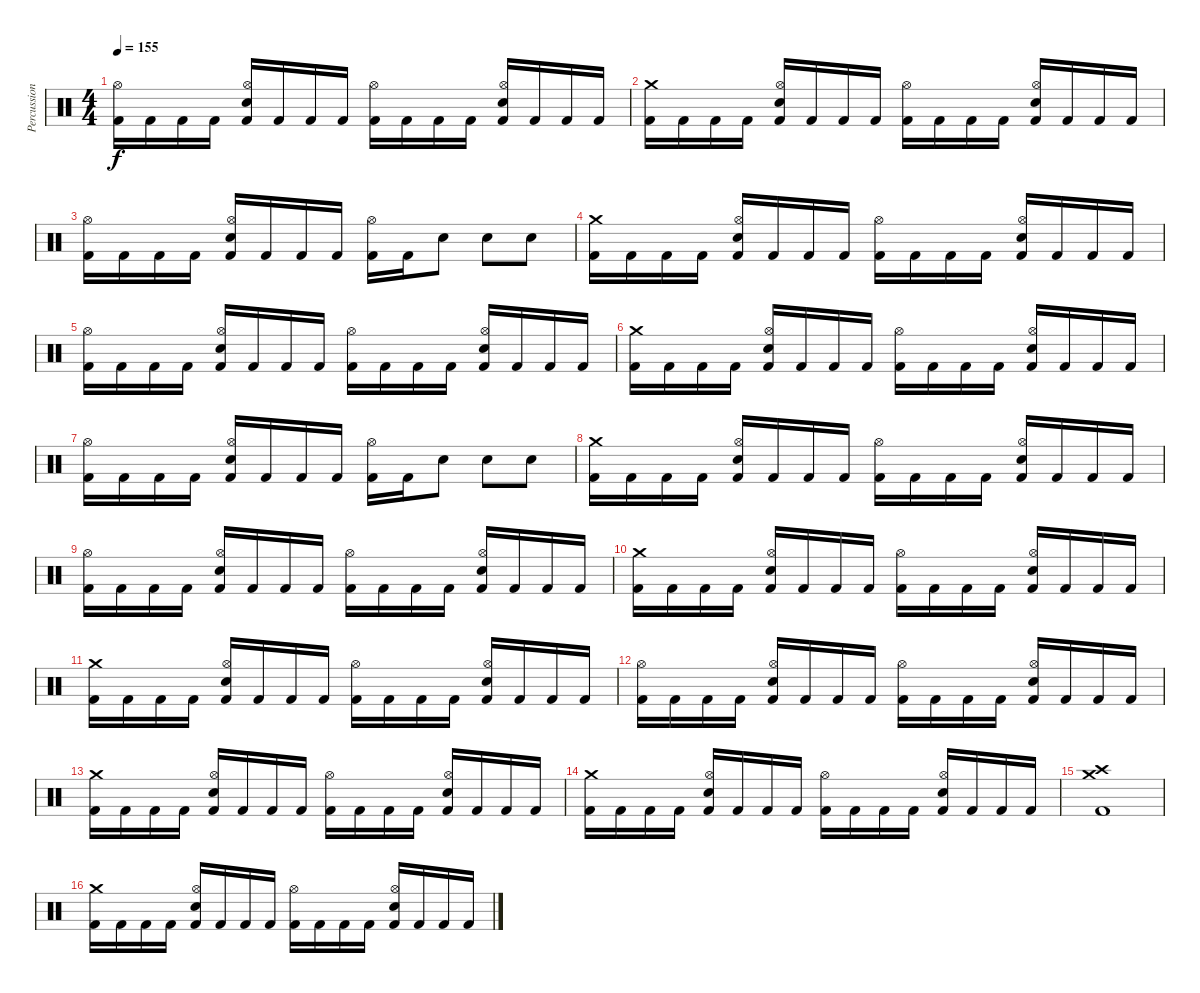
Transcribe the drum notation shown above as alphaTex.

\track ("Percussion" "Percussion") {instrument percussion}
\staff {score}
\articulation defaults
\ts (4 4)
\tempo 155
\clef neutral
\ks c
("Kick (hit) 2" "Hi-Hat (open)").16{dy f} "Kick (hit) 2".16 "Kick (hit) 2".16 "Kick (hit) 2".16 ("Kick (hit) 2" "Snare (hit) 2" "Hi-Hat (open)").16 "Kick (hit) 2".16 "Kick (hit) 2".16 "Kick (hit) 2".16 ("Kick (hit) 2" "Hi-Hat (open)").16 "Kick (hit) 2".16 "Kick (hit) 2".16 "Kick (hit) 2".16 ("Kick (hit) 2" "Snare (hit) 2" "Hi-Hat (open)").16 "Kick (hit) 2".16 "Kick (hit) 2".16 "Kick (hit) 2".16 |
("Kick (hit) 2" "Crash medium (hit)").16 "Kick (hit) 2".16 "Kick (hit) 2".16 "Kick (hit) 2".16 ("Kick (hit) 2" "Snare (hit) 2" "Hi-Hat (open)").16 "Kick (hit) 2".16 "Kick (hit) 2".16 "Kick (hit) 2".16 ("Kick (hit) 2" "Hi-Hat (open)").16 "Kick (hit) 2".16 "Kick (hit) 2".16 "Kick (hit) 2".16 ("Kick (hit) 2" "Snare (hit) 2" "Hi-Hat (open)").16 "Kick (hit) 2".16 "Kick (hit) 2".16 "Kick (hit) 2".16 |
("Kick (hit) 2" "Hi-Hat (open)").16 "Kick (hit) 2".16 "Kick (hit) 2".16 "Kick (hit) 2".16 ("Kick (hit) 2" "Snare (hit) 2" "Hi-Hat (open)").16 "Kick (hit) 2".16 "Kick (hit) 2".16 "Kick (hit) 2".16 ("Kick (hit) 2" "Hi-Hat (open)").16 "Kick (hit) 2".16 "Snare (hit) 2".8 "Snare (hit) 2".8 "Snare (hit) 2".8 |
("Kick (hit) 2" "Crash medium (hit)").16 "Kick (hit) 2".16 "Kick (hit) 2".16 "Kick (hit) 2".16 ("Kick (hit) 2" "Snare (hit) 2" "Hi-Hat (open)").16 "Kick (hit) 2".16 "Kick (hit) 2".16 "Kick (hit) 2".16 ("Kick (hit) 2" "Hi-Hat (open)").16 "Kick (hit) 2".16 "Kick (hit) 2".16 "Kick (hit) 2".16 ("Kick (hit) 2" "Snare (hit) 2" "Hi-Hat (open)").16 "Kick (hit) 2".16 "Kick (hit) 2".16 "Kick (hit) 2".16 |
("Kick (hit) 2" "Hi-Hat (open)").16 "Kick (hit) 2".16 "Kick (hit) 2".16 "Kick (hit) 2".16 ("Kick (hit) 2" "Snare (hit) 2" "Hi-Hat (open)").16 "Kick (hit) 2".16 "Kick (hit) 2".16 "Kick (hit) 2".16 ("Kick (hit) 2" "Hi-Hat (open)").16 "Kick (hit) 2".16 "Kick (hit) 2".16 "Kick (hit) 2".16 ("Kick (hit) 2" "Snare (hit) 2" "Hi-Hat (open)").16 "Kick (hit) 2".16 "Kick (hit) 2".16 "Kick (hit) 2".16 |
("Kick (hit) 2" "Crash medium (hit)").16 "Kick (hit) 2".16 "Kick (hit) 2".16 "Kick (hit) 2".16 ("Kick (hit) 2" "Snare (hit) 2" "Hi-Hat (open)").16 "Kick (hit) 2".16 "Kick (hit) 2".16 "Kick (hit) 2".16 ("Kick (hit) 2" "Hi-Hat (open)").16 "Kick (hit) 2".16 "Kick (hit) 2".16 "Kick (hit) 2".16 ("Kick (hit) 2" "Snare (hit) 2" "Hi-Hat (open)").16 "Kick (hit) 2".16 "Kick (hit) 2".16 "Kick (hit) 2".16 |
("Kick (hit) 2" "Hi-Hat (open)").16 "Kick (hit) 2".16 "Kick (hit) 2".16 "Kick (hit) 2".16 ("Kick (hit) 2" "Snare (hit) 2" "Hi-Hat (open)").16 "Kick (hit) 2".16 "Kick (hit) 2".16 "Kick (hit) 2".16 ("Kick (hit) 2" "Hi-Hat (open)").16 "Kick (hit) 2".16 "Snare (hit) 2".8 "Snare (hit) 2".8 "Snare (hit) 2".8 |
("Kick (hit) 2" "Crash medium (hit)").16 "Kick (hit) 2".16 "Kick (hit) 2".16 "Kick (hit) 2".16 ("Kick (hit) 2" "Snare (hit) 2" "Hi-Hat (open)").16 "Kick (hit) 2".16 "Kick (hit) 2".16 "Kick (hit) 2".16 ("Kick (hit) 2" "Hi-Hat (open)").16 "Kick (hit) 2".16 "Kick (hit) 2".16 "Kick (hit) 2".16 ("Kick (hit) 2" "Snare (hit) 2" "Hi-Hat (open)").16 "Kick (hit) 2".16 "Kick (hit) 2".16 "Kick (hit) 2".16 |
("Kick (hit) 2" "Hi-Hat (open)").16 "Kick (hit) 2".16 "Kick (hit) 2".16 "Kick (hit) 2".16 ("Kick (hit) 2" "Snare (hit) 2" "Hi-Hat (open)").16 "Kick (hit) 2".16 "Kick (hit) 2".16 "Kick (hit) 2".16 ("Kick (hit) 2" "Hi-Hat (open)").16 "Kick (hit) 2".16 "Kick (hit) 2".16 "Kick (hit) 2".16 ("Kick (hit) 2" "Snare (hit) 2" "Hi-Hat (open)").16 "Kick (hit) 2".16 "Kick (hit) 2".16 "Kick (hit) 2".16 |
("Kick (hit) 2" "Crash medium (hit)").16 "Kick (hit) 2".16 "Kick (hit) 2".16 "Kick (hit) 2".16 ("Kick (hit) 2" "Snare (hit) 2" "Hi-Hat (open)").16 "Kick (hit) 2".16 "Kick (hit) 2".16 "Kick (hit) 2".16 ("Kick (hit) 2" "Hi-Hat (open)").16 "Kick (hit) 2".16 "Kick (hit) 2".16 "Kick (hit) 2".16 ("Kick (hit) 2" "Snare (hit) 2" "Hi-Hat (open)").16 "Kick (hit) 2".16 "Kick (hit) 2".16 "Kick (hit) 2".16 |
("Kick (hit) 2" "Crash medium (hit)").16 "Kick (hit) 2".16 "Kick (hit) 2".16 "Kick (hit) 2".16 ("Kick (hit) 2" "Snare (hit) 2" "Hi-Hat (open)").16 "Kick (hit) 2".16 "Kick (hit) 2".16 "Kick (hit) 2".16 ("Kick (hit) 2" "Hi-Hat (open)").16 "Kick (hit) 2".16 "Kick (hit) 2".16 "Kick (hit) 2".16 ("Kick (hit) 2" "Snare (hit) 2" "Hi-Hat (open)").16 "Kick (hit) 2".16 "Kick (hit) 2".16 "Kick (hit) 2".16 |
("Kick (hit) 2" "Hi-Hat (open)").16 "Kick (hit) 2".16 "Kick (hit) 2".16 "Kick (hit) 2".16 ("Kick (hit) 2" "Snare (hit) 2" "Hi-Hat (open)").16 "Kick (hit) 2".16 "Kick (hit) 2".16 "Kick (hit) 2".16 ("Kick (hit) 2" "Hi-Hat (open)").16 "Kick (hit) 2".16 "Kick (hit) 2".16 "Kick (hit) 2".16 ("Kick (hit) 2" "Snare (hit) 2" "Hi-Hat (open)").16 "Kick (hit) 2".16 "Kick (hit) 2".16 "Kick (hit) 2".16 |
("Kick (hit) 2" "Crash medium (hit)").16 "Kick (hit) 2".16 "Kick (hit) 2".16 "Kick (hit) 2".16 ("Kick (hit) 2" "Snare (hit) 2" "Hi-Hat (open)").16 "Kick (hit) 2".16 "Kick (hit) 2".16 "Kick (hit) 2".16 ("Kick (hit) 2" "Hi-Hat (open)").16 "Kick (hit) 2".16 "Kick (hit) 2".16 "Kick (hit) 2".16 ("Kick (hit) 2" "Snare (hit) 2" "Hi-Hat (open)").16 "Kick (hit) 2".16 "Kick (hit) 2".16 "Kick (hit) 2".16 |
("Kick (hit) 2" "Crash medium (hit)").16 "Kick (hit) 2".16 "Kick (hit) 2".16 "Kick (hit) 2".16 ("Kick (hit) 2" "Snare (hit) 2" "Hi-Hat (open)").16 "Kick (hit) 2".16 "Kick (hit) 2".16 "Kick (hit) 2".16 ("Kick (hit) 2" "Hi-Hat (open)").16 "Kick (hit) 2".16 "Kick (hit) 2".16 "Kick (hit) 2".16 ("Kick (hit) 2" "Snare (hit) 2" "Hi-Hat (open)").16 "Kick (hit) 2".16 "Kick (hit) 2".16 "Kick (hit) 2".16 |
("Kick (hit) 2" "Crash high (hit)" "Crash medium (hit)").1 |
("Kick (hit) 2" "Crash medium (hit)").16 "Kick (hit) 2".16 "Kick (hit) 2".16 "Kick (hit) 2".16 ("Kick (hit) 2" "Snare (hit) 2" "Hi-Hat (open)").16 "Kick (hit) 2".16 "Kick (hit) 2".16 "Kick (hit) 2".16 ("Kick (hit) 2" "Hi-Hat (open)").16 "Kick (hit) 2".16 "Kick (hit) 2".16 "Kick (hit) 2".16 ("Kick (hit) 2" "Snare (hit) 2" "Hi-Hat (open)").16 "Kick (hit) 2".16 "Kick (hit) 2".16 "Kick (hit) 2".16
